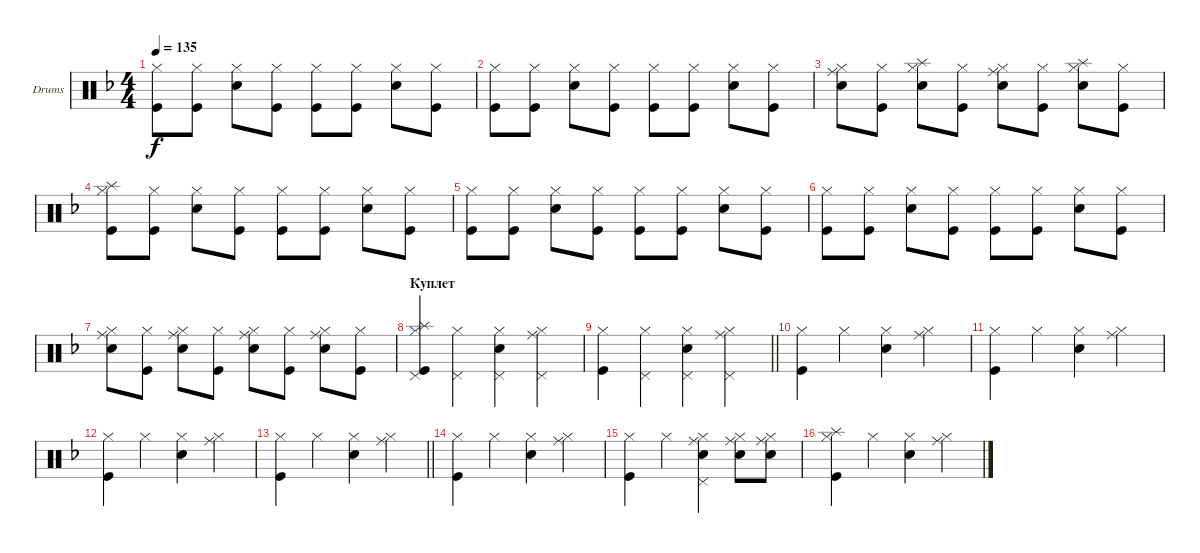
\bracketExtendMode groupsimilarinstruments
\firstSystemTrackNameOrientation horizontal
\otherSystemsTrackNameOrientation horizontal
\track ("Drumkitover" "Drums") {instrument percussion}
\staff {score}
\articulation defaults
\ts (4 4)
\tempo 135
\clef neutral
\ks dminor
("Kick (hit)" "Hi-Hat (closed)").8{dy f} ("Kick (hit)" "Hi-Hat (closed)").8 ("Snare (hit) 2" "Hi-Hat (closed)").8 ("Kick (hit)" "Hi-Hat (closed)").8 ("Kick (hit)" "Hi-Hat (closed)").8 ("Kick (hit)" "Hi-Hat (closed)").8 ("Snare (hit) 2" "Hi-Hat (closed)").8 ("Kick (hit)" "Hi-Hat (closed)").8 |
("Kick (hit)" "Hi-Hat (closed)").8 ("Kick (hit)" "Hi-Hat (closed)").8 ("Snare (hit) 2" "Hi-Hat (closed)").8 ("Kick (hit)" "Hi-Hat (closed)").8 ("Kick (hit)" "Hi-Hat (closed)").8 ("Kick (hit)" "Hi-Hat (closed)").8 ("Snare (hit) 2" "Hi-Hat (closed)").8 ("Kick (hit)" "Hi-Hat (closed)").8 |
("Snare (hit) 2" "Hi-Hat (closed)" "Ride (middle)").8 ("Kick (hit)" "Hi-Hat (closed)").8 ("Snare (hit) 2" "Hi-Hat (closed)" "Splash (hit)").8 ("Kick (hit)" "Hi-Hat (closed)").8 ("Snare (hit) 2" "Hi-Hat (closed)" "Ride (middle)").8 ("Kick (hit)" "Hi-Hat (closed)").8 ("Snare (hit) 2" "Hi-Hat (closed)" "Splash (hit)").8 ("Kick (hit)" "Hi-Hat (closed)").8 |
("Kick (hit)" "Hi-Hat (closed)" "Splash (hit)").8 ("Kick (hit)" "Hi-Hat (closed)").8 ("Snare (hit) 2" "Hi-Hat (closed)").8 ("Kick (hit)" "Hi-Hat (closed)").8 ("Kick (hit)" "Hi-Hat (closed)").8 ("Kick (hit)" "Hi-Hat (closed)").8 ("Snare (hit) 2" "Hi-Hat (closed)").8 ("Kick (hit)" "Hi-Hat (closed)").8 |
\scale
0.333333 ("Kick (hit)" "Hi-Hat (closed)").8 ("Kick (hit)" "Hi-Hat (closed)").8 ("Snare (hit) 2" "Hi-Hat (closed)").8 ("Kick (hit)" "Hi-Hat (closed)").8 ("Kick (hit)" "Hi-Hat (closed)").8 ("Kick (hit)" "Hi-Hat (closed)").8 ("Snare (hit) 2" "Hi-Hat (closed)").8 ("Kick (hit)" "Hi-Hat (closed)").8 |
\scale
0.333333 ("Kick (hit)" "Hi-Hat (closed)").8 ("Kick (hit)" "Hi-Hat (closed)").8 ("Snare (hit) 2" "Hi-Hat (closed)").8 ("Kick (hit)" "Hi-Hat (closed)").8 ("Kick (hit)" "Hi-Hat (closed)").8 ("Kick (hit)" "Hi-Hat (closed)").8 ("Snare (hit) 2" "Hi-Hat (closed)").8 ("Kick (hit)" "Hi-Hat (closed)").8 |
\scale
0.333333 ("Snare (hit) 2" "Hi-Hat (closed)" "Ride (middle)").8 ("Kick (hit)" "Hi-Hat (closed)").8 ("Snare (hit) 2" "Hi-Hat (closed)" "Ride (middle)").8 ("Kick (hit)" "Hi-Hat (closed)").8 ("Snare (hit) 2" "Hi-Hat (closed)" "Ride (middle)").8 ("Kick (hit)" "Hi-Hat (closed)").8 ("Snare (hit) 2" "Hi-Hat (closed)" "Ride (middle)").8 ("Kick (hit)" "Hi-Hat (closed)").8 |
\section ("" "Куплет")
\scale
0.333333 ("Kick (hit)" "Hi-Hat (closed)" "Pedal Hi-Hat (hit)" "Splash (hit)").4 ("Hi-Hat (closed)" "Pedal Hi-Hat (hit)").4 ("Snare (hit) 2" "Hi-Hat (closed)" "Pedal Hi-Hat (hit)").4 ("Hi-Hat (closed)" "Pedal Hi-Hat (hit)" "Ride (middle)").4 |
\scale
0.333333
\barLineRight lightlight
("Kick (hit)" "Hi-Hat (closed)").4 ("Hi-Hat (closed)" "Pedal Hi-Hat (hit)").4 ("Snare (hit) 2" "Hi-Hat (closed)" "Pedal Hi-Hat (hit)").4 ("Hi-Hat (closed)" "Pedal Hi-Hat (hit)" "Ride (middle)").4 |
\scale
0.333333 ("Kick (hit)" "Hi-Hat (closed)").4 "Hi-Hat (closed)".4 ("Snare (hit) 2" "Hi-Hat (closed)").4 ("Hi-Hat (closed)" "Ride (middle)").4 |
\scale
0.333333 ("Kick (hit)" "Hi-Hat (closed)").4 "Hi-Hat (closed)".4 ("Snare (hit) 2" "Hi-Hat (closed)").4 ("Hi-Hat (closed)" "Ride (middle)").4 |
\scale
0.333333 ("Kick (hit)" "Hi-Hat (closed)").4 "Hi-Hat (closed)".4 ("Snare (hit) 2" "Hi-Hat (closed)").4 ("Hi-Hat (closed)" "Ride (middle)").4 |
\scale
0.333333
\barLineRight lightlight
("Kick (hit)" "Hi-Hat (closed)").4 "Hi-Hat (closed)".4 ("Snare (hit) 2" "Hi-Hat (closed)").4 ("Hi-Hat (closed)" "Ride (middle)").4 |
\scale
0.333333 ("Kick (hit)" "Hi-Hat (closed)").4 "Hi-Hat (closed)".4 ("Snare (hit) 2" "Hi-Hat (closed)").4 ("Hi-Hat (closed)" "Ride (middle)").4 |
\scale
0.333333 ("Kick (hit)" "Hi-Hat (closed)").4 "Hi-Hat (closed)".4 ("Ride (middle)" "Snare (hit) 2" "Hi-Hat (closed)" "Pedal Hi-Hat (hit)").4 ("Hi-Hat (closed)" "Snare (hit) 2" "Ride (middle)").8 ("Hi-Hat (closed)" "Snare (hit) 2" "Ride (middle)").8 |
\scale
0.333333 ("Kick (hit)" "Hi-Hat (closed)" "Splash (hit)").4 "Hi-Hat (closed)".4 ("Snare (hit) 2" "Hi-Hat (closed)").4 ("Hi-Hat (closed)" "Ride (middle)").4
